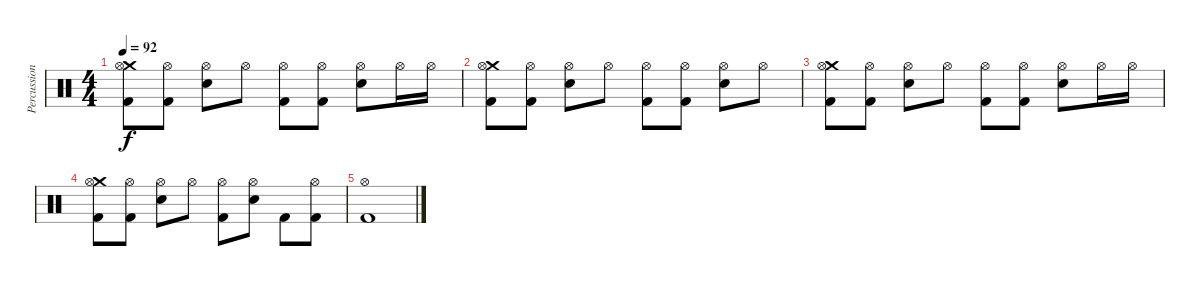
\track ("Percussion" "Percussion") {instrument percussion}
\staff {score}
\articulation defaults
\ts (4 4)
\tempo 92
\clef neutral
\ks c
("Crash medium (hit)" "Hi-Hat (open)" "Kick (hit) 2").8{dy f} ("Hi-Hat (open)" "Kick (hit) 2").8 ("Hi-Hat (open)" "Electric Snare (hit)").8 "Hi-Hat (open)".8 ("Hi-Hat (open)" "Kick (hit) 2").8 ("Hi-Hat (open)" "Kick (hit) 2").8 ("Hi-Hat (open)" "Electric Snare (hit)").8 "Hi-Hat (open)".16 "Hi-Hat (open)".16 |
("Crash medium (hit)" "Hi-Hat (open)" "Kick (hit) 2").8 ("Hi-Hat (open)" "Kick (hit) 2").8 ("Hi-Hat (open)" "Electric Snare (hit)").8 "Hi-Hat (open)".8 ("Hi-Hat (open)" "Kick (hit) 2").8 ("Hi-Hat (open)" "Kick (hit) 2").8 ("Hi-Hat (open)" "Electric Snare (hit)").8 "Hi-Hat (open)".8 |
("Crash medium (hit)" "Hi-Hat (open)" "Kick (hit) 2").8 ("Hi-Hat (open)" "Kick (hit) 2").8 ("Hi-Hat (open)" "Electric Snare (hit)").8 "Hi-Hat (open)".8 ("Hi-Hat (open)" "Kick (hit) 2").8 ("Hi-Hat (open)" "Kick (hit) 2").8 ("Hi-Hat (open)" "Electric Snare (hit)").8 "Hi-Hat (open)".16 "Hi-Hat (open)".16 |
("Crash medium (hit)" "Hi-Hat (open)" "Kick (hit) 2").8 ("Hi-Hat (open)" "Kick (hit) 2").8 ("Hi-Hat (open)" "Electric Snare (hit)").8 "Hi-Hat (open)".8 ("Hi-Hat (open)" "Kick (hit) 2").8 ("Hi-Hat (open)" "Electric Snare (hit)").8 "Kick (hit) 2".8 ("Hi-Hat (open)" "Kick (hit) 2").8 |
("Hi-Hat (open)" "Kick (hit) 2").1
